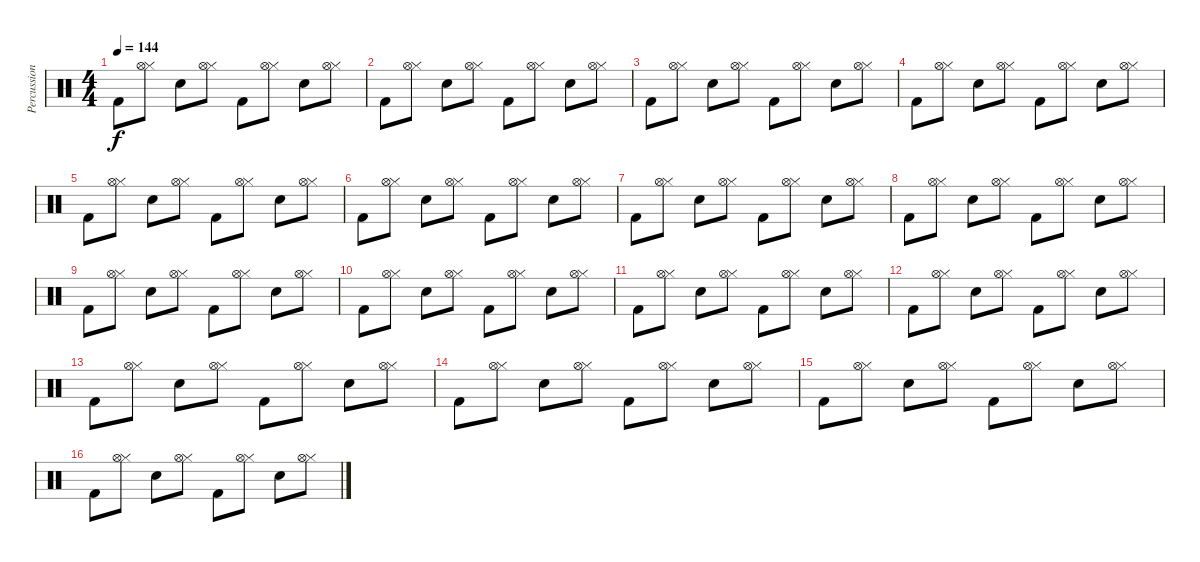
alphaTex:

\track ("Percussion" "Percussion") {instrument percussion}
\staff {score}
\articulation defaults
\ts (4 4)
\tempo 144
\clef neutral
\ks c "Kick (hit) 2".8{dy f}
("Hi-Hat (closed)" "Hi-Hat (open)").8 "Electric Snare (hit)".8 ("Hi-Hat (closed)" "Hi-Hat (open)").8 "Kick (hit) 2".8 ("Hi-Hat (closed)" "Hi-Hat (open)").8 "Electric Snare (hit)".8 ("Hi-Hat (closed)" "Hi-Hat (open)").8 |
"Kick (hit) 2".8 ("Hi-Hat (closed)" "Hi-Hat (open)").8 "Electric Snare (hit)".8 ("Hi-Hat (closed)" "Hi-Hat (open)").8 "Kick (hit) 2".8 ("Hi-Hat (closed)" "Hi-Hat (open)").8 "Electric Snare (hit)".8 ("Hi-Hat (closed)" "Hi-Hat (open)").8 |
"Kick (hit) 2".8 ("Hi-Hat (closed)" "Hi-Hat (open)").8 "Electric Snare (hit)".8 ("Hi-Hat (closed)" "Hi-Hat (open)").8 "Kick (hit) 2".8 ("Hi-Hat (closed)" "Hi-Hat (open)").8 "Electric Snare (hit)".8 ("Hi-Hat (closed)" "Hi-Hat (open)").8 |
"Kick (hit) 2".8 ("Hi-Hat (closed)" "Hi-Hat (open)").8 "Electric Snare (hit)".8 ("Hi-Hat (closed)" "Hi-Hat (open)").8 "Kick (hit) 2".8 ("Hi-Hat (closed)" "Hi-Hat (open)").8 "Electric Snare (hit)".8 ("Hi-Hat (closed)" "Hi-Hat (open)").8 |
"Kick (hit) 2".8 ("Hi-Hat (closed)" "Hi-Hat (open)").8 "Electric Snare (hit)".8 ("Hi-Hat (closed)" "Hi-Hat (open)").8 "Kick (hit) 2".8 ("Hi-Hat (closed)" "Hi-Hat (open)").8 "Electric Snare (hit)".8 ("Hi-Hat (closed)" "Hi-Hat (open)").8 |
"Kick (hit) 2".8 ("Hi-Hat (closed)" "Hi-Hat (open)").8 "Electric Snare (hit)".8 ("Hi-Hat (closed)" "Hi-Hat (open)").8 "Kick (hit) 2".8 ("Hi-Hat (closed)" "Hi-Hat (open)").8 "Electric Snare (hit)".8 ("Hi-Hat (closed)" "Hi-Hat (open)").8 |
"Kick (hit) 2".8 ("Hi-Hat (closed)" "Hi-Hat (open)").8 "Electric Snare (hit)".8 ("Hi-Hat (closed)" "Hi-Hat (open)").8 "Kick (hit) 2".8 ("Hi-Hat (closed)" "Hi-Hat (open)").8 "Electric Snare (hit)".8 ("Hi-Hat (closed)" "Hi-Hat (open)").8 |
"Kick (hit) 2".8 ("Hi-Hat (closed)" "Hi-Hat (open)").8 "Electric Snare (hit)".8 ("Hi-Hat (closed)" "Hi-Hat (open)").8 "Kick (hit) 2".8 ("Hi-Hat (closed)" "Hi-Hat (open)").8 "Electric Snare (hit)".8 ("Hi-Hat (closed)" "Hi-Hat (open)").8 |
"Kick (hit) 2".8 ("Hi-Hat (closed)" "Hi-Hat (open)").8 "Electric Snare (hit)".8 ("Hi-Hat (closed)" "Hi-Hat (open)").8 "Kick (hit) 2".8 ("Hi-Hat (closed)" "Hi-Hat (open)").8 "Electric Snare (hit)".8 ("Hi-Hat (closed)" "Hi-Hat (open)").8 |
"Kick (hit) 2".8 ("Hi-Hat (closed)" "Hi-Hat (open)").8 "Electric Snare (hit)".8 ("Hi-Hat (closed)" "Hi-Hat (open)").8 "Kick (hit) 2".8 ("Hi-Hat (closed)" "Hi-Hat (open)").8 "Electric Snare (hit)".8 ("Hi-Hat (closed)" "Hi-Hat (open)").8 |
"Kick (hit) 2".8 ("Hi-Hat (closed)" "Hi-Hat (open)").8 "Electric Snare (hit)".8 ("Hi-Hat (closed)" "Hi-Hat (open)").8 "Kick (hit) 2".8 ("Hi-Hat (closed)" "Hi-Hat (open)").8 "Electric Snare (hit)".8 ("Hi-Hat (closed)" "Hi-Hat (open)").8 |
"Kick (hit) 2".8 ("Hi-Hat (closed)" "Hi-Hat (open)").8 "Electric Snare (hit)".8 ("Hi-Hat (closed)" "Hi-Hat (open)").8 "Kick (hit) 2".8 ("Hi-Hat (closed)" "Hi-Hat (open)").8 "Electric Snare (hit)".8 ("Hi-Hat (closed)" "Hi-Hat (open)").8 |
"Kick (hit) 2".8 ("Hi-Hat (closed)" "Hi-Hat (open)").8 "Electric Snare (hit)".8 ("Hi-Hat (closed)" "Hi-Hat (open)").8 "Kick (hit) 2".8 ("Hi-Hat (closed)" "Hi-Hat (open)").8 "Electric Snare (hit)".8 ("Hi-Hat (closed)" "Hi-Hat (open)").8 |
"Kick (hit) 2".8 ("Hi-Hat (closed)" "Hi-Hat (open)").8 "Electric Snare (hit)".8 ("Hi-Hat (closed)" "Hi-Hat (open)").8 "Kick (hit) 2".8 ("Hi-Hat (closed)" "Hi-Hat (open)").8 "Electric Snare (hit)".8 ("Hi-Hat (closed)" "Hi-Hat (open)").8 |
"Kick (hit) 2".8 ("Hi-Hat (closed)" "Hi-Hat (open)").8 "Electric Snare (hit)".8 ("Hi-Hat (closed)" "Hi-Hat (open)").8 "Kick (hit) 2".8 ("Hi-Hat (closed)" "Hi-Hat (open)").8 "Electric Snare (hit)".8 ("Hi-Hat (closed)" "Hi-Hat (open)").8 |
"Kick (hit) 2".8 ("Hi-Hat (closed)" "Hi-Hat (open)").8 "Electric Snare (hit)".8 ("Hi-Hat (closed)" "Hi-Hat (open)").8 "Kick (hit) 2".8 ("Hi-Hat (closed)" "Hi-Hat (open)").8 "Electric Snare (hit)".8 ("Hi-Hat (closed)" "Hi-Hat (open)").8
